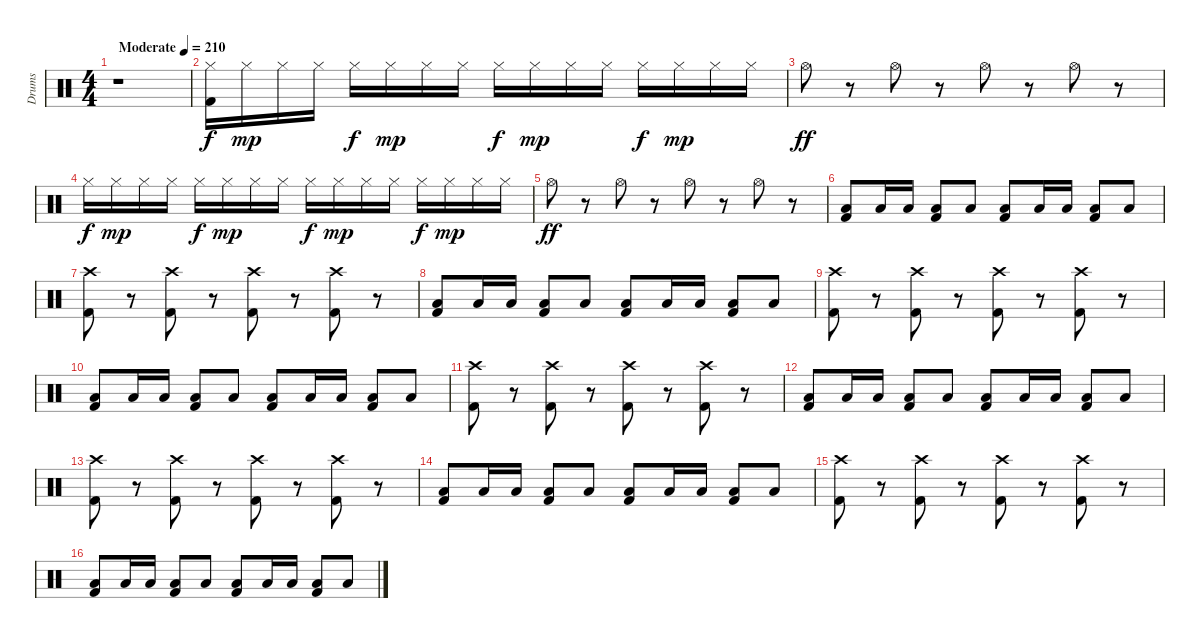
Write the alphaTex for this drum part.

\track ("Drums" "Drums") {instrument percussion}
\staff {score}
\articulation defaults
\ts (4 4)
\tempo (210 "Moderate")
\clef neutral
\ks c
r.1{dy f} |
("Hi-Hat (closed)" "Kick (hit) 2").16 "Hi-Hat (closed)".16{dy mp} "Hi-Hat (closed)".16 "Hi-Hat (closed)".16 "Hi-Hat (closed)".16{dy f} "Hi-Hat (closed)".16{dy mp} "Hi-Hat (closed)".16 "Hi-Hat (closed)".16 "Hi-Hat (closed)".16{dy f} "Hi-Hat (closed)".16{dy mp} "Hi-Hat (closed)".16 "Hi-Hat (closed)".16 "Hi-Hat (closed)".16{dy f} "Hi-Hat (closed)".16{dy mp} "Hi-Hat (closed)".16 "Hi-Hat (closed)".16 |
"Hi-Hat (open)".8{dy ff} r.8 "Hi-Hat (open)".8 r.8 "Hi-Hat (open)".8 r.8 "Hi-Hat (open)".8 r.8 |
"Hi-Hat (closed)".16{dy f} "Hi-Hat (closed)".16{dy mp} "Hi-Hat (closed)".16 "Hi-Hat (closed)".16 "Hi-Hat (closed)".16{dy f} "Hi-Hat (closed)".16{dy mp} "Hi-Hat (closed)".16 "Hi-Hat (closed)".16 "Hi-Hat (closed)".16{dy f} "Hi-Hat (closed)".16{dy mp} "Hi-Hat (closed)".16 "Hi-Hat (closed)".16 "Hi-Hat (closed)".16{dy f} "Hi-Hat (closed)".16{dy mp} "Hi-Hat (closed)".16 "Hi-Hat (closed)".16 |
"Hi-Hat (open)".8{dy ff} r.8 "Hi-Hat (open)".8 r.8 "Hi-Hat (open)".8 r.8 "Hi-Hat (open)".8 r.8 |
("Low Floor Tom (hit)" "Kick (hit) 2").8 "Low Floor Tom (hit)".16 "Low Floor Tom (hit)".16 ("Low Floor Tom (hit)" "Kick (hit) 2").8 "Low Floor Tom (hit)".8 ("Low Floor Tom (hit)" "Kick (hit) 2").8 "Low Floor Tom (hit)".16 "Low Floor Tom (hit)".16 ("Low Floor Tom (hit)" "Kick (hit) 2").8 "Low Floor Tom (hit)".8 |
("Crash high (hit)" "Kick (hit) 2").8 r.8 ("Crash high (hit)" "Kick (hit) 2").8 r.8 ("Crash high (hit)" "Kick (hit) 2").8 r.8 ("Crash high (hit)" "Kick (hit) 2").8 r.8 |
("Low Floor Tom (hit)" "Kick (hit) 2").8 "Low Floor Tom (hit)".16 "Low Floor Tom (hit)".16 ("Low Floor Tom (hit)" "Kick (hit) 2").8 "Low Floor Tom (hit)".8 ("Low Floor Tom (hit)" "Kick (hit) 2").8 "Low Floor Tom (hit)".16 "Low Floor Tom (hit)".16 ("Low Floor Tom (hit)" "Kick (hit) 2").8 "Low Floor Tom (hit)".8 |
("Crash high (hit)" "Kick (hit) 2").8 r.8 ("Crash high (hit)" "Kick (hit) 2").8 r.8 ("Crash high (hit)" "Kick (hit) 2").8 r.8 ("Crash high (hit)" "Kick (hit) 2").8 r.8 |
("Low Floor Tom (hit)" "Kick (hit) 2").8 "Low Floor Tom (hit)".16 "Low Floor Tom (hit)".16 ("Low Floor Tom (hit)" "Kick (hit) 2").8 "Low Floor Tom (hit)".8 ("Low Floor Tom (hit)" "Kick (hit) 2").8 "Low Floor Tom (hit)".16 "Low Floor Tom (hit)".16 ("Low Floor Tom (hit)" "Kick (hit) 2").8 "Low Floor Tom (hit)".8 |
("Crash high (hit)" "Kick (hit) 2").8 r.8 ("Crash high (hit)" "Kick (hit) 2").8 r.8 ("Crash high (hit)" "Kick (hit) 2").8 r.8 ("Crash high (hit)" "Kick (hit) 2").8 r.8 |
("Low Floor Tom (hit)" "Kick (hit) 2").8 "Low Floor Tom (hit)".16 "Low Floor Tom (hit)".16 ("Low Floor Tom (hit)" "Kick (hit) 2").8 "Low Floor Tom (hit)".8 ("Low Floor Tom (hit)" "Kick (hit) 2").8 "Low Floor Tom (hit)".16 "Low Floor Tom (hit)".16 ("Low Floor Tom (hit)" "Kick (hit) 2").8 "Low Floor Tom (hit)".8 |
("Crash high (hit)" "Kick (hit) 2").8 r.8 ("Crash high (hit)" "Kick (hit) 2").8 r.8 ("Crash high (hit)" "Kick (hit) 2").8 r.8 ("Crash high (hit)" "Kick (hit) 2").8 r.8 |
("Low Floor Tom (hit)" "Kick (hit) 2").8 "Low Floor Tom (hit)".16 "Low Floor Tom (hit)".16 ("Low Floor Tom (hit)" "Kick (hit) 2").8 "Low Floor Tom (hit)".8 ("Low Floor Tom (hit)" "Kick (hit) 2").8 "Low Floor Tom (hit)".16 "Low Floor Tom (hit)".16 ("Low Floor Tom (hit)" "Kick (hit) 2").8 "Low Floor Tom (hit)".8 |
("Crash high (hit)" "Kick (hit) 2").8 r.8 ("Crash high (hit)" "Kick (hit) 2").8 r.8 ("Crash high (hit)" "Kick (hit) 2").8 r.8 ("Crash high (hit)" "Kick (hit) 2").8 r.8 |
("Low Floor Tom (hit)" "Kick (hit) 2").8 "Low Floor Tom (hit)".16 "Low Floor Tom (hit)".16 ("Low Floor Tom (hit)" "Kick (hit) 2").8 "Low Floor Tom (hit)".8 ("Low Floor Tom (hit)" "Kick (hit) 2").8 "Low Floor Tom (hit)".16 "Low Floor Tom (hit)".16 ("Low Floor Tom (hit)" "Kick (hit) 2").8 "Low Floor Tom (hit)".8
